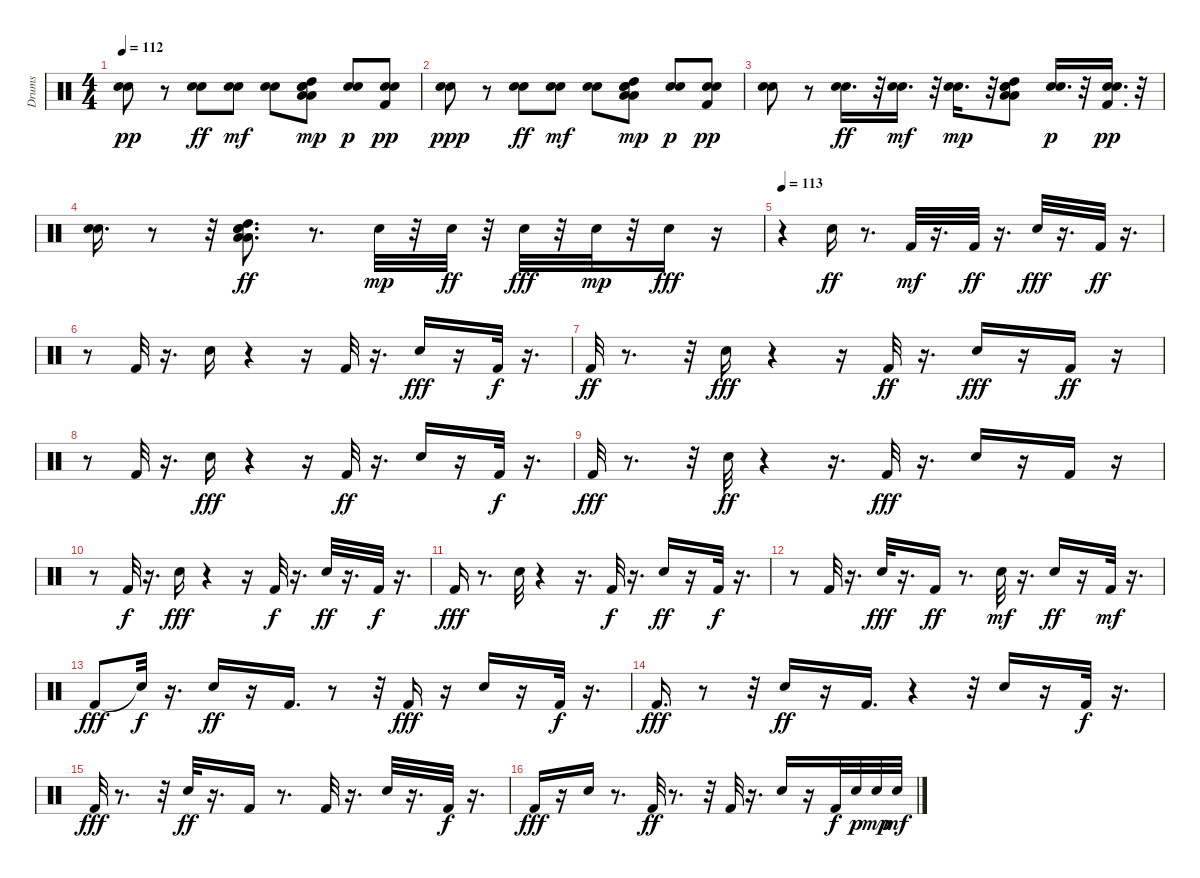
\track ("Drums" "Drums") {instrument percussion}
\staff {score}
\articulation defaults
\ts (4 4)
\tempo 112
\clef neutral
\ks c
("Electric Snare (hit)" "Snare (hit) 2").8{dy pp} r.8 ("Snare (hit) 2" "Electric Snare (hit)").8{dy ff} ("Snare (hit) 2" "Electric Snare (hit)").8{dy mf} ("Electric Snare (hit)" "Snare (hit) 2").8 ("High Tom (hit)" "Low Tom (hit)" "Low Floor Tom (hit)" "Snare (hit) 2" "Electric Snare (hit)").8{dy mp} ("Snare (hit) 2" "Electric Snare (hit)").8{dy p} ("Kick (hit) 2" "Snare (hit) 2" "Electric Snare (hit)").8{dy pp} |
("Snare (hit) 2" "Electric Snare (hit)").8{dy ppp} r.8 ("Electric Snare (hit)" "Snare (hit) 2").8{dy ff} ("Electric Snare (hit)" "Snare (hit) 2").8{dy mf} ("Electric Snare (hit)" "Snare (hit) 2").8 ("Low Tom (hit)" "High Tom (hit)" "Low Floor Tom (hit)" "Snare (hit) 2" "Electric Snare (hit)").8{dy mp} ("Snare (hit) 2" "Electric Snare (hit)").8{dy p} ("Kick (hit) 2" "Electric Snare (hit)" "Snare (hit) 2").8{dy pp} |
("Snare (hit) 2" "Electric Snare (hit)").8 r.8 ("Electric Snare (hit)" "Snare (hit) 2").16{d dy ff} r.32 ("Snare (hit) 2" "Electric Snare (hit)").16{d dy mf} r.32 ("Snare (hit) 2" "Electric Snare (hit)").16{d dy mp} r.32 ("High Tom (hit)" "Low Tom (hit)" "Low Floor Tom (hit)" "Electric Snare (hit)" "Snare (hit) 2").8 ("Electric Snare (hit)" "Snare (hit) 2").16{d dy p} r.32 ("Kick (hit) 2" "Snare (hit) 2" "Electric Snare (hit)").16{d dy pp} r.32 |
("Snare (hit) 2" "Electric Snare (hit)").16{d} r.8 r.32 ("Electric Snare (hit)" "Snare (hit) 2" "Low Floor Tom (hit)" "Low Tom (hit)" "High Tom (hit)").8{d dy ff} r.8{d} "Snare (hit) 2".32{dy mp} r.32 "Snare (hit) 2".32{dy ff} r.32 "Snare (hit) 2".32{dy fff} r.32 "Snare (hit) 2".32{dy mp} r.32 "Snare (hit) 2".16{dy fff} r.16 |
\tempo 113
r.4 "Snare (hit) 2".16{dy ff} r.8{d} "Kick (hit) 2".32{dy mf} r.16{d} "Kick (hit) 2".32{dy ff} r.16{d} "Snare (hit) 2".32{dy fff} r.16{d} "Kick (hit) 2".32{dy ff} r.16{d} |
r.8 "Kick (hit) 2".32 r.16{d} "Snare (hit) 2".16 r.4 r.16 "Kick (hit) 2".32 r.16{d} "Snare (hit) 2".16{dy fff} r.16 "Kick (hit) 2".32{dy f} r.16{d} |
"Kick (hit) 2".32{dy ff} r.8{d} r.32 "Snare (hit) 2".16{dy fff} r.4 r.16 "Kick (hit) 2".32{dy ff} r.16{d} "Snare (hit) 2".16{dy fff} r.16 "Kick (hit) 2".16{dy ff} r.16 |
r.8 "Kick (hit) 2".32 r.16{d} "Snare (hit) 2".16{dy fff} r.4 r.16 "Kick (hit) 2".32{dy ff} r.16{d} "Snare (hit) 2".16 r.16 "Kick (hit) 2".32{dy f} r.16{d} |
"Kick (hit) 2".32{dy fff} r.8{d} r.32 "Snare (hit) 2".32{dy ff} r.4 r.16{d} "Kick (hit) 2".32{dy fff} r.16{d} "Snare (hit) 2".16 r.16 "Kick (hit) 2".16 r.16 |
r.8 "Kick (hit) 2".32{dy f} r.16{d} "Snare (hit) 2".16{dy fff} r.4 r.16 "Kick (hit) 2".32{dy f} r.16{d} "Snare (hit) 2".32{dy ff} r.16{d} "Kick (hit) 2".32{dy f} r.16{d} |
"Kick (hit) 2".16{dy fff} r.8{d} "Snare (hit) 2".32 r.4 r.16{d} "Kick (hit) 2".32{dy f} r.16{d} "Snare (hit) 2".16{dy ff} r.16 "Kick (hit) 2".32{dy f} r.16{d} |
r.8 "Kick (hit) 2".32 r.16{d} "Snare (hit) 2".32{dy fff} r.16{d} "Kick (hit) 2".16{dy ff} r.8{d} "Snare (hit) 2".32{dy mf} r.16{d} "Snare (hit) 2".16{dy ff} r.16 "Kick (hit) 2".32{dy mf} r.16{d} |
"Kick (hit) 2".8{dy fff} "Snare (hit)"{t}.32{dy f} r.16{d} "Snare (hit) 2".16{dy ff} r.16 "Kick (hit) 2".16{d} r.8 r.32 "Kick (hit) 2".16{dy fff} r.16 "Snare (hit) 2".16 r.16 "Kick (hit) 2".32{dy f} r.16{d} |
"Kick (hit) 2".16{d dy fff} r.8 r.32 "Snare (hit) 2".16{dy ff} r.16 "Kick (hit) 2".16{d} r.4 r.32 "Snare (hit) 2".16 r.16 "Kick (hit) 2".32{dy f} r.16{d} |
"Kick (hit) 2".32{dy fff} r.8{d} r.32 "Snare (hit) 2".32{dy ff} r.16{d} "Kick (hit) 2".16 r.8{d} "Kick (hit) 2".32 r.16{d} "Snare (hit) 2".32 r.16{d} "Kick (hit) 2".32{dy f} r.16{d} |
"Kick (hit) 2".16{dy fff} r.16 "Snare (hit) 2".16 r.8{d} "Kick (hit) 2".32{dy ff} r.8{d} r.32 "Kick (hit) 2".32 r.16{d} "Snare (hit) 2".16 r.16 "Kick (hit) 2".32{dy f} "Snare (hit) 2".32{dy p} "Snare (hit) 2".32{dy mp} "Snare (hit) 2".32{dy mf}
